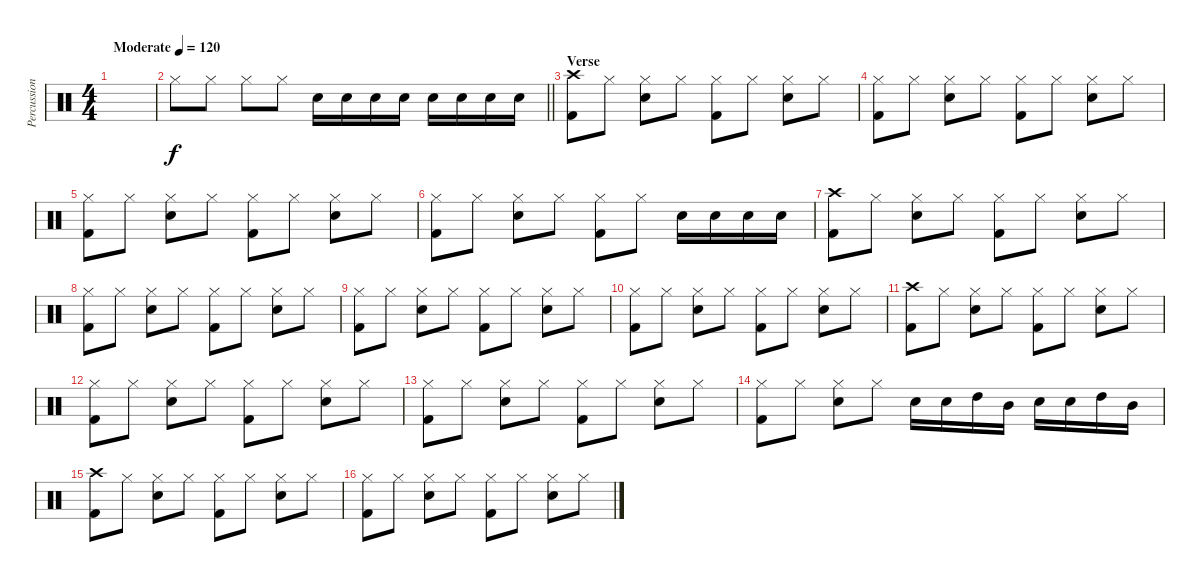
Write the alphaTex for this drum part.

\track ("Percussion" "Percussion") {instrument percussion}
\staff {score}
\articulation defaults
\ts (4 4)
\tempo (120 "Moderate")
\clef neutral
\ks c
|
\barLineRight lightlight "Hi-Hat (closed)".8 "Hi-Hat (closed)".8 "Hi-Hat (closed)".8 "Hi-Hat (closed)".8 "Electric Snare (hit)".16 "Electric Snare (hit)".16 "Electric Snare (hit)".16 "Electric Snare (hit)".16 "Electric Snare (hit)".16 "Electric Snare (hit)".16 "Electric Snare (hit)".16 "Electric Snare (hit)".16
|
\section ("" "Verse ")
("Crash high (hit)" "Kick (hit) 2").8 "Hi-Hat (closed)".8 ("Hi-Hat (closed)" "Electric Snare (hit)").8 "Hi-Hat (closed)".8 ("Hi-Hat (closed)" "Kick (hit) 2").8 "Hi-Hat (closed)".8 ("Hi-Hat (closed)" "Electric Snare (hit)").8 "Hi-Hat (closed)".8 |
("Hi-Hat (closed)" "Kick (hit) 2").8 "Hi-Hat (closed)".8 ("Hi-Hat (closed)" "Electric Snare (hit)").8 "Hi-Hat (closed)".8 ("Hi-Hat (closed)" "Kick (hit) 2").8 "Hi-Hat (closed)".8 ("Hi-Hat (closed)" "Electric Snare (hit)").8 "Hi-Hat (closed)".8 |
("Hi-Hat (closed)" "Kick (hit) 2").8 "Hi-Hat (closed)".8 ("Hi-Hat (closed)" "Electric Snare (hit)").8 "Hi-Hat (closed)".8 ("Hi-Hat (closed)" "Kick (hit) 2").8 "Hi-Hat (closed)".8 ("Hi-Hat (closed)" "Electric Snare (hit)").8 "Hi-Hat (closed)".8 |
("Hi-Hat (closed)" "Kick (hit) 2").8 "Hi-Hat (closed)".8 ("Hi-Hat (closed)" "Electric Snare (hit)").8 "Hi-Hat (closed)".8 ("Hi-Hat (closed)" "Kick (hit) 2").8 "Hi-Hat (closed)".8 "Electric Snare (hit)".16 "Electric Snare (hit)".16 "Electric Snare (hit)".16 "Electric Snare (hit)".16 |
("Crash high (hit)" "Kick (hit) 2").8 "Hi-Hat (closed)".8 ("Hi-Hat (closed)" "Electric Snare (hit)").8 "Hi-Hat (closed)".8 ("Hi-Hat (closed)" "Kick (hit) 2").8 "Hi-Hat (closed)".8 ("Hi-Hat (closed)" "Electric Snare (hit)").8 "Hi-Hat (closed)".8 |
("Hi-Hat (closed)" "Kick (hit) 2").8 "Hi-Hat (closed)".8 ("Hi-Hat (closed)" "Electric Snare (hit)").8 "Hi-Hat (closed)".8 ("Hi-Hat (closed)" "Kick (hit) 2").8 "Hi-Hat (closed)".8 ("Hi-Hat (closed)" "Electric Snare (hit)").8 "Hi-Hat (closed)".8 |
("Hi-Hat (closed)" "Kick (hit) 2").8 "Hi-Hat (closed)".8 ("Hi-Hat (closed)" "Electric Snare (hit)").8 "Hi-Hat (closed)".8 ("Hi-Hat (closed)" "Kick (hit) 2").8 "Hi-Hat (closed)".8 ("Hi-Hat (closed)" "Electric Snare (hit)").8 "Hi-Hat (closed)".8 |
("Hi-Hat (closed)" "Kick (hit) 2").8 "Hi-Hat (closed)".8 ("Hi-Hat (closed)" "Electric Snare (hit)").8 "Hi-Hat (closed)".8 ("Hi-Hat (closed)" "Kick (hit) 2").8 "Hi-Hat (closed)".8 ("Hi-Hat (closed)" "Electric Snare (hit)").8 "Hi-Hat (closed)".8 |
("Crash high (hit)" "Kick (hit) 2").8 "Hi-Hat (closed)".8 ("Hi-Hat (closed)" "Electric Snare (hit)").8 "Hi-Hat (closed)".8 ("Hi-Hat (closed)" "Kick (hit) 2").8 "Hi-Hat (closed)".8 ("Hi-Hat (closed)" "Electric Snare (hit)").8 "Hi-Hat (closed)".8 |
("Hi-Hat (closed)" "Kick (hit) 2").8 "Hi-Hat (closed)".8 ("Hi-Hat (closed)" "Electric Snare (hit)").8 "Hi-Hat (closed)".8 ("Hi-Hat (closed)" "Kick (hit) 2").8 "Hi-Hat (closed)".8 ("Hi-Hat (closed)" "Electric Snare (hit)").8 "Hi-Hat (closed)".8 |
("Hi-Hat (closed)" "Kick (hit) 2").8 "Hi-Hat (closed)".8 ("Hi-Hat (closed)" "Electric Snare (hit)").8 "Hi-Hat (closed)".8 ("Hi-Hat (closed)" "Kick (hit) 2").8 "Hi-Hat (closed)".8 ("Hi-Hat (closed)" "Electric Snare (hit)").8 "Hi-Hat (closed)".8 |
("Hi-Hat (closed)" "Kick (hit) 2").8 "Hi-Hat (closed)".8 ("Hi-Hat (closed)" "Electric Snare (hit)").8 "Hi-Hat (closed)".8 "Electric Snare (hit)".16 "Electric Snare (hit)".16 "High Tom (hit)".16 "Mid Tom (hit)".16 "Electric Snare (hit)".16 "Electric Snare (hit)".16 "High Tom (hit)".16 "Mid Tom (hit)".16 |
("Crash high (hit)" "Kick (hit) 2").8 "Hi-Hat (closed)".8 ("Hi-Hat (closed)" "Electric Snare (hit)").8 "Hi-Hat (closed)".8 ("Hi-Hat (closed)" "Kick (hit) 2").8 "Hi-Hat (closed)".8 ("Hi-Hat (closed)" "Electric Snare (hit)").8 "Hi-Hat (closed)".8 |
("Hi-Hat (closed)" "Kick (hit) 2").8 "Hi-Hat (closed)".8 ("Hi-Hat (closed)" "Electric Snare (hit)").8 "Hi-Hat (closed)".8 ("Hi-Hat (closed)" "Kick (hit) 2").8 "Hi-Hat (closed)".8 ("Hi-Hat (closed)" "Electric Snare (hit)").8 "Hi-Hat (closed)".8
